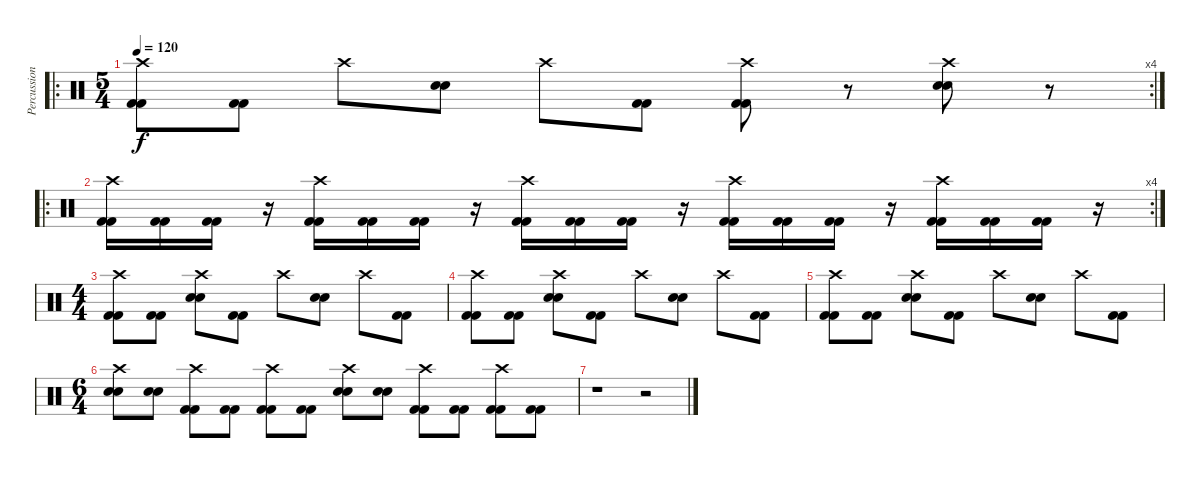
\track ("Percussion" "Percussion") {instrument percussion}
\staff {score}
\articulation defaults
\ro
\rc 4
\ts (5 4)
\tempo 120
\clef neutral
\ks c
("Crash high (hit)" "Kick (hit) 2" "Kick (hit) 2").8{dy f} ("Kick (hit) 2" "Kick (hit) 2").8 "Crash high (hit)".8 ("Snare (hit) 2" "Snare (hit) 2").8 "Crash high (hit)".8 ("Kick (hit) 2" "Kick (hit) 2").8 ("Crash high (hit)" "Kick (hit) 2" "Kick (hit) 2").8 r.8 ("Crash high (hit)" "Snare (hit) 2" "Snare (hit) 2").8 r.8 |
\ro
\rc 4
("Crash high (hit)" "Kick (hit) 2" "Kick (hit) 2").16 ("Kick (hit) 2" "Kick (hit) 2").16 ("Kick (hit) 2" "Kick (hit) 2").16 r.16 ("Crash high (hit)" "Kick (hit) 2" "Kick (hit) 2").16 ("Kick (hit) 2" "Kick (hit) 2").16 ("Kick (hit) 2" "Kick (hit) 2").16 r.16 ("Crash high (hit)" "Kick (hit) 2" "Kick (hit) 2").16 ("Kick (hit) 2" "Kick (hit) 2").16 ("Kick (hit) 2" "Kick (hit) 2").16 r.16 ("Crash high (hit)" "Kick (hit) 2" "Kick (hit) 2").16 ("Kick (hit) 2" "Kick (hit) 2").16 ("Kick (hit) 2" "Kick (hit) 2").16 r.16 ("Crash high (hit)" "Kick (hit) 2" "Kick (hit) 2").16 ("Kick (hit) 2" "Kick (hit) 2").16 ("Kick (hit) 2" "Kick (hit) 2").16 r.16 |
\ts (4 4)
("Crash high (hit)" "Kick (hit) 2" "Kick (hit) 2").8 ("Kick (hit) 2" "Kick (hit) 2").8 ("Crash high (hit)" "Snare (hit) 2" "Snare (hit) 2").8 ("Kick (hit) 2" "Kick (hit) 2").8 "Crash high (hit)".8 ("Snare (hit) 2" "Snare (hit) 2").8 "Crash high (hit)".8 ("Kick (hit) 2" "Kick (hit) 2").8 |
("Crash high (hit)" "Kick (hit) 2" "Kick (hit) 2").8 ("Kick (hit) 2" "Kick (hit) 2").8 ("Crash high (hit)" "Snare (hit) 2" "Snare (hit) 2").8 ("Kick (hit) 2" "Kick (hit) 2").8 "Crash high (hit)".8 ("Snare (hit) 2" "Snare (hit) 2").8 "Crash high (hit)".8 ("Kick (hit) 2" "Kick (hit) 2").8 |
("Crash high (hit)" "Kick (hit) 2" "Kick (hit) 2").8 ("Kick (hit) 2" "Kick (hit) 2").8 ("Crash high (hit)" "Snare (hit) 2" "Snare (hit) 2").8 ("Kick (hit) 2" "Kick (hit) 2").8 "Crash high (hit)".8 ("Snare (hit) 2" "Snare (hit) 2").8 "Crash high (hit)".8 ("Kick (hit) 2" "Kick (hit) 2").8 |
\ts (6 4)
("Crash high (hit)" "Snare (hit) 2" "Snare (hit) 2").8 ("Snare (hit) 2" "Snare (hit) 2").8 ("Crash high (hit)" "Kick (hit) 2" "Kick (hit) 2").8 ("Kick (hit) 2" "Kick (hit) 2").8 ("Crash high (hit)" "Kick (hit) 2" "Kick (hit) 2").8 ("Kick (hit) 2" "Kick (hit) 2").8 ("Crash high (hit)" "Snare (hit) 2" "Snare (hit) 2").8 ("Snare (hit) 2" "Snare (hit) 2").8 ("Crash high (hit)" "Kick (hit) 2" "Kick (hit) 2").8 ("Kick (hit) 2" "Kick (hit) 2").8 ("Crash high (hit)" "Kick (hit) 2" "Kick (hit) 2").8 ("Kick (hit) 2" "Kick (hit) 2").8 |
r.1 r.2
